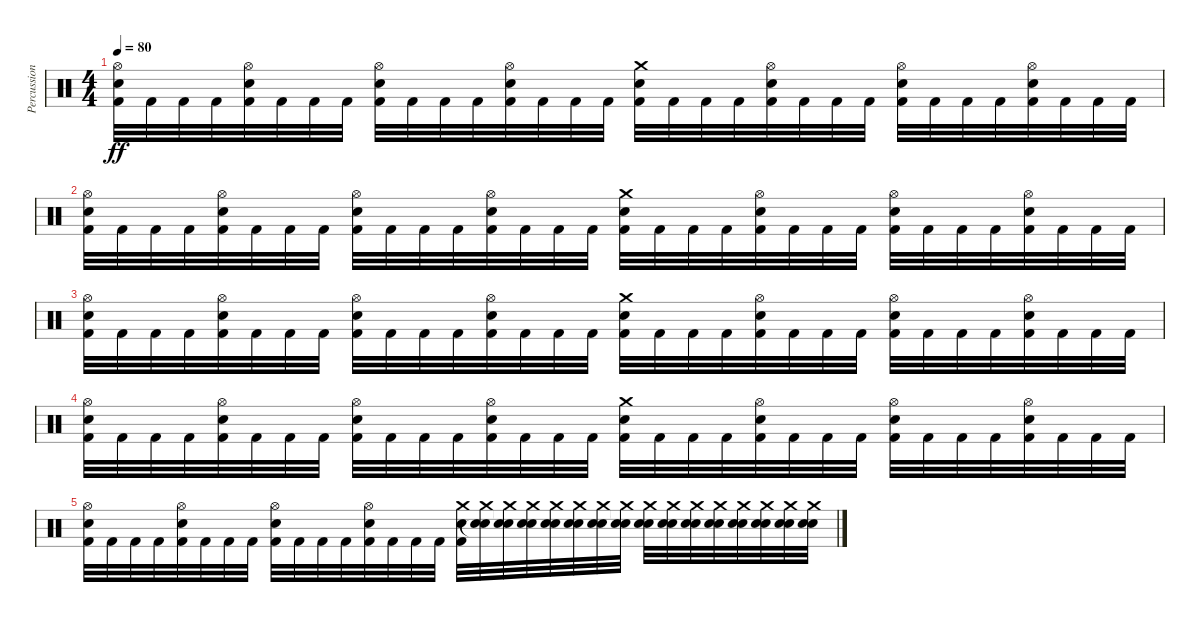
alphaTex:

\track ("Percussion" "Percussion") {instrument percussion}
\staff {score}
\articulation defaults
\ts (4 4)
\tempo 80
\clef neutral
\ks c
("Hi-Hat (open)" "Snare (hit) 2" "Kick (hit) 2").32{dy ff} "Kick (hit) 2".32 "Kick (hit) 2".32 "Kick (hit) 2".32 ("Hi-Hat (open)" "Snare (hit) 2" "Kick (hit) 2").32 "Kick (hit) 2".32 "Kick (hit) 2".32 "Kick (hit) 2".32 ("Hi-Hat (open)" "Snare (hit) 2" "Kick (hit) 2").32 "Kick (hit) 2".32 "Kick (hit) 2".32 "Kick (hit) 2".32 ("Hi-Hat (open)" "Snare (hit) 2" "Kick (hit) 2").32 "Kick (hit) 2".32 "Kick (hit) 2".32 "Kick (hit) 2".32 ("Crash medium (hit)" "Snare (hit) 2" "Kick (hit) 2").32 "Kick (hit) 2".32 "Kick (hit) 2".32 "Kick (hit) 2".32 ("Hi-Hat (open)" "Snare (hit) 2" "Kick (hit) 2").32 "Kick (hit) 2".32 "Kick (hit) 2".32 "Kick (hit) 2".32 ("Hi-Hat (open)" "Snare (hit) 2" "Kick (hit) 2").32 "Kick (hit) 2".32 "Kick (hit) 2".32 "Kick (hit) 2".32 ("Hi-Hat (open)" "Snare (hit) 2" "Kick (hit) 2").32 "Kick (hit) 2".32 "Kick (hit) 2".32 "Kick (hit) 2".32 |
("Hi-Hat (open)" "Snare (hit) 2" "Kick (hit) 2").32{volume 0} "Kick (hit) 2".32 "Kick (hit) 2".32 "Kick (hit) 2".32 ("Hi-Hat (open)" "Snare (hit) 2" "Kick (hit) 2").32 "Kick (hit) 2".32 "Kick (hit) 2".32 "Kick (hit) 2".32 ("Hi-Hat (open)" "Snare (hit) 2" "Kick (hit) 2").32 "Kick (hit) 2".32 "Kick (hit) 2".32 "Kick (hit) 2".32 ("Hi-Hat (open)" "Snare (hit) 2" "Kick (hit) 2").32 "Kick (hit) 2".32 "Kick (hit) 2".32 "Kick (hit) 2".32 ("Crash medium (hit)" "Snare (hit) 2" "Kick (hit) 2").32 "Kick (hit) 2".32 "Kick (hit) 2".32 "Kick (hit) 2".32 ("Hi-Hat (open)" "Snare (hit) 2" "Kick (hit) 2").32 "Kick (hit) 2".32 "Kick (hit) 2".32 "Kick (hit) 2".32 ("Hi-Hat (open)" "Snare (hit) 2" "Kick (hit) 2").32 "Kick (hit) 2".32 "Kick (hit) 2".32 "Kick (hit) 2".32 ("Hi-Hat (open)" "Snare (hit) 2" "Kick (hit) 2").32 "Kick (hit) 2".32 "Kick (hit) 2".32 "Kick (hit) 2".32 |
("Hi-Hat (open)" "Snare (hit) 2" "Kick (hit) 2").32 "Kick (hit) 2".32 "Kick (hit) 2".32 "Kick (hit) 2".32 ("Hi-Hat (open)" "Snare (hit) 2" "Kick (hit) 2").32 "Kick (hit) 2".32 "Kick (hit) 2".32 "Kick (hit) 2".32 ("Hi-Hat (open)" "Snare (hit) 2" "Kick (hit) 2").32 "Kick (hit) 2".32 "Kick (hit) 2".32 "Kick (hit) 2".32 ("Hi-Hat (open)" "Snare (hit) 2" "Kick (hit) 2").32 "Kick (hit) 2".32 "Kick (hit) 2".32 "Kick (hit) 2".32 ("Crash medium (hit)" "Snare (hit) 2" "Kick (hit) 2").32 "Kick (hit) 2".32 "Kick (hit) 2".32 "Kick (hit) 2".32 ("Hi-Hat (open)" "Snare (hit) 2" "Kick (hit) 2").32 "Kick (hit) 2".32 "Kick (hit) 2".32 "Kick (hit) 2".32 ("Hi-Hat (open)" "Snare (hit) 2" "Kick (hit) 2").32 "Kick (hit) 2".32 "Kick (hit) 2".32 "Kick (hit) 2".32 ("Hi-Hat (open)" "Snare (hit) 2" "Kick (hit) 2").32 "Kick (hit) 2".32 "Kick (hit) 2".32 "Kick (hit) 2".32 |
("Hi-Hat (open)" "Snare (hit) 2" "Kick (hit) 2").32 "Kick (hit) 2".32 "Kick (hit) 2".32 "Kick (hit) 2".32 ("Hi-Hat (open)" "Snare (hit) 2" "Kick (hit) 2").32 "Kick (hit) 2".32 "Kick (hit) 2".32 "Kick (hit) 2".32 ("Hi-Hat (open)" "Snare (hit) 2" "Kick (hit) 2").32 "Kick (hit) 2".32 "Kick (hit) 2".32 "Kick (hit) 2".32 ("Hi-Hat (open)" "Snare (hit) 2" "Kick (hit) 2").32 "Kick (hit) 2".32 "Kick (hit) 2".32 "Kick (hit) 2".32 ("Crash medium (hit)" "Snare (hit) 2" "Kick (hit) 2").32 "Kick (hit) 2".32 "Kick (hit) 2".32 "Kick (hit) 2".32 ("Hi-Hat (open)" "Snare (hit) 2" "Kick (hit) 2").32 "Kick (hit) 2".32 "Kick (hit) 2".32 "Kick (hit) 2".32 ("Hi-Hat (open)" "Snare (hit) 2" "Kick (hit) 2").32 "Kick (hit) 2".32 "Kick (hit) 2".32 "Kick (hit) 2".32 ("Hi-Hat (open)" "Snare (hit) 2" "Kick (hit) 2").32 "Kick (hit) 2".32 "Kick (hit) 2".32 "Kick (hit) 2".32 |
("Hi-Hat (open)" "Snare (hit) 2" "Kick (hit) 2").32 "Kick (hit) 2".32 "Kick (hit) 2".32 "Kick (hit) 2".32 ("Hi-Hat (open)" "Snare (hit) 2" "Kick (hit) 2").32 "Kick (hit) 2".32 "Kick (hit) 2".32 "Kick (hit) 2".32 ("Hi-Hat (open)" "Snare (hit) 2" "Kick (hit) 2").32 "Kick (hit) 2".32 "Kick (hit) 2".32 "Kick (hit) 2".32 ("Hi-Hat (open)" "Snare (hit) 2" "Kick (hit) 2").32 "Kick (hit) 2".32 "Kick (hit) 2".32 "Kick (hit) 2".32 ("Crash medium (hit)" "Snare (hit) 2" "Kick (hit) 2").32 ("Crash medium (hit)" "Snare (hit)"{t} "Snare (hit)"{t}).32 ("Crash medium (hit)" "Snare (hit)"{t} "Snare (hit)"{t}).32 ("Crash medium (hit)" "Snare (hit)"{t} "Snare (hit)"{t}).32 ("Crash medium (hit)" "Snare (hit)"{t} "Snare (hit)"{t}).32 ("Crash medium (hit)" "Snare (hit)"{t} "Snare (hit)"{t}).32 ("Crash medium (hit)" "Snare (hit)"{t} "Snare (hit)"{t}).32 ("Crash medium (hit)" "Snare (hit)"{t} "Snare (hit)"{t}).32 ("Crash medium (hit)" "Snare (hit)"{t} "Snare (hit)"{t}).32 ("Crash medium (hit)" "Snare (hit)"{t} "Snare (hit)"{t}).32 ("Crash medium (hit)" "Snare (hit)"{t} "Snare (hit)"{t}).32 ("Crash medium (hit)" "Snare (hit)"{t} "Snare (hit)"{t}).32 ("Crash medium (hit)" "Snare (hit)"{t} "Snare (hit)"{t}).32 ("Crash medium (hit)" "Snare (hit)"{t} "Snare (hit)"{t}).32 ("Crash medium (hit)" "Snare (hit)"{t} "Snare (hit)"{t}).32 ("Crash medium (hit)" "Snare (hit)"{t} "Snare (hit)"{t}).32
